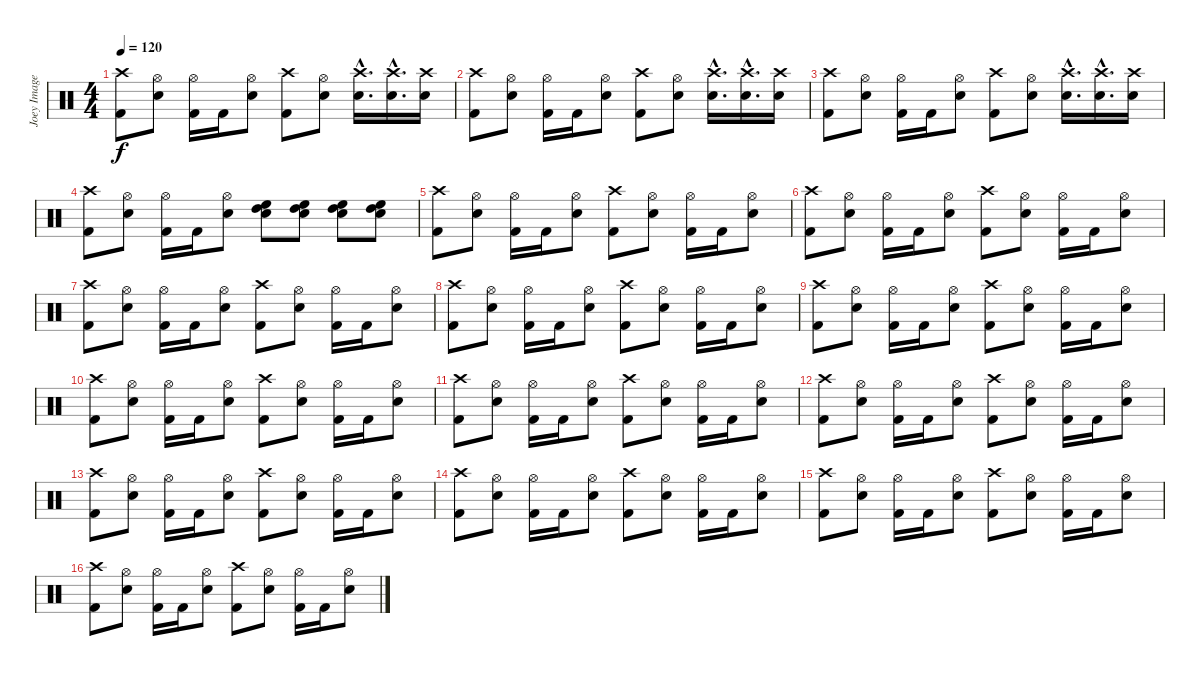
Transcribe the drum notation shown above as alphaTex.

\track ("Joey Image" "Joey Image") {instrument percussion}
\staff {score}
\articulation defaults
\ts (4 4)
\tempo 120
\clef neutral
\ks c
("Crash high (hit)" "Kick (hit) 2").8{dy f} ("Hi-Hat (open)" "Snare (hit) 2").8 ("Hi-Hat (open)" "Kick (hit) 2").16 "Kick (hit) 2".16 ("Hi-Hat (open)" "Snare (hit) 2").8 ("Crash high (hit)" "Kick (hit) 2").8 ("Hi-Hat (open)" "Snare (hit) 2").8 ("Crash high (hit)"{hac} "Snare (hit) 2"{hac}).16{d} ("Crash high (hit)"{hac} "Snare (hit) 2"{hac}).16{d} ("Crash high (hit)" "Snare (hit) 2").16 |
("Crash high (hit)" "Kick (hit) 2").8 ("Hi-Hat (open)" "Snare (hit) 2").8 ("Hi-Hat (open)" "Kick (hit) 2").16 "Kick (hit) 2".16 ("Hi-Hat (open)" "Snare (hit) 2").8 ("Crash high (hit)" "Kick (hit) 2").8 ("Hi-Hat (open)" "Snare (hit) 2").8 ("Crash high (hit)"{hac} "Snare (hit) 2"{hac}).16{d} ("Crash high (hit)"{hac} "Snare (hit) 2"{hac}).16{d} ("Crash high (hit)" "Snare (hit) 2").16 |
("Crash high (hit)" "Kick (hit) 2").8 ("Hi-Hat (open)" "Snare (hit) 2").8 ("Hi-Hat (open)" "Kick (hit) 2").16 "Kick (hit) 2".16 ("Hi-Hat (open)" "Snare (hit) 2").8 ("Crash high (hit)" "Kick (hit) 2").8 ("Hi-Hat (open)" "Snare (hit) 2").8 ("Crash high (hit)"{hac} "Snare (hit) 2"{hac}).16{d} ("Crash high (hit)"{hac} "Snare (hit) 2"{hac}).16{d} ("Crash high (hit)" "Snare (hit) 2").16 |
("Crash high (hit)" "Kick (hit) 2").8 ("Hi-Hat (open)" "Snare (hit) 2").8 ("Hi-Hat (open)" "Kick (hit) 2").16 "Kick (hit) 2".16 ("Hi-Hat (open)" "Snare (hit) 2").8 ("High Floor Tom (hit)" "Snare (hit) 2" "High Tom (hit)").8 ("High Floor Tom (hit)" "Snare (hit) 2" "High Tom (hit)").8 ("High Floor Tom (hit)" "Snare (hit) 2" "High Tom (hit)").8 ("High Floor Tom (hit)" "Snare (hit) 2" "High Tom (hit)").8 |
("Crash high (hit)" "Kick (hit) 2").8 ("Hi-Hat (open)" "Snare (hit) 2").8 ("Hi-Hat (open)" "Kick (hit) 2").16 "Kick (hit) 2".16 ("Hi-Hat (open)" "Snare (hit) 2").8 ("Crash high (hit)" "Kick (hit) 2").8 ("Hi-Hat (open)" "Snare (hit) 2").8 ("Hi-Hat (open)" "Kick (hit) 2").16 "Kick (hit) 2".16 ("Hi-Hat (open)" "Snare (hit) 2").8 |
("Crash high (hit)" "Kick (hit) 2").8 ("Hi-Hat (open)" "Snare (hit) 2").8 ("Hi-Hat (open)" "Kick (hit) 2").16 "Kick (hit) 2".16 ("Hi-Hat (open)" "Snare (hit) 2").8 ("Crash high (hit)" "Kick (hit) 2").8 ("Hi-Hat (open)" "Snare (hit) 2").8 ("Hi-Hat (open)" "Kick (hit) 2").16 "Kick (hit) 2".16 ("Hi-Hat (open)" "Snare (hit) 2").8 |
("Crash high (hit)" "Kick (hit) 2").8 ("Hi-Hat (open)" "Snare (hit) 2").8 ("Hi-Hat (open)" "Kick (hit) 2").16 "Kick (hit) 2".16 ("Hi-Hat (open)" "Snare (hit) 2").8 ("Crash high (hit)" "Kick (hit) 2").8 ("Hi-Hat (open)" "Snare (hit) 2").8 ("Hi-Hat (open)" "Kick (hit) 2").16 "Kick (hit) 2".16 ("Hi-Hat (open)" "Snare (hit) 2").8 |
("Crash high (hit)" "Kick (hit) 2").8 ("Hi-Hat (open)" "Snare (hit) 2").8 ("Hi-Hat (open)" "Kick (hit) 2").16 "Kick (hit) 2".16 ("Hi-Hat (open)" "Snare (hit) 2").8 ("Crash high (hit)" "Kick (hit) 2").8 ("Hi-Hat (open)" "Snare (hit) 2").8 ("Hi-Hat (open)" "Kick (hit) 2").16 "Kick (hit) 2".16 ("Hi-Hat (open)" "Snare (hit) 2").8 |
("Crash high (hit)" "Kick (hit) 2").8 ("Hi-Hat (open)" "Snare (hit) 2").8 ("Hi-Hat (open)" "Kick (hit) 2").16 "Kick (hit) 2".16 ("Hi-Hat (open)" "Snare (hit) 2").8 ("Crash high (hit)" "Kick (hit) 2").8 ("Hi-Hat (open)" "Snare (hit) 2").8 ("Hi-Hat (open)" "Kick (hit) 2").16 "Kick (hit) 2".16 ("Hi-Hat (open)" "Snare (hit) 2").8 |
("Crash high (hit)" "Kick (hit) 2").8 ("Hi-Hat (open)" "Snare (hit) 2").8 ("Hi-Hat (open)" "Kick (hit) 2").16 "Kick (hit) 2".16 ("Hi-Hat (open)" "Snare (hit) 2").8 ("Crash high (hit)" "Kick (hit) 2").8 ("Hi-Hat (open)" "Snare (hit) 2").8 ("Hi-Hat (open)" "Kick (hit) 2").16 "Kick (hit) 2".16 ("Hi-Hat (open)" "Snare (hit) 2").8 |
("Crash high (hit)" "Kick (hit) 2").8 ("Hi-Hat (open)" "Snare (hit) 2").8 ("Hi-Hat (open)" "Kick (hit) 2").16 "Kick (hit) 2".16 ("Hi-Hat (open)" "Snare (hit) 2").8 ("Crash high (hit)" "Kick (hit) 2").8 ("Hi-Hat (open)" "Snare (hit) 2").8 ("Hi-Hat (open)" "Kick (hit) 2").16 "Kick (hit) 2".16 ("Hi-Hat (open)" "Snare (hit) 2").8 |
("Crash high (hit)" "Kick (hit) 2").8 ("Hi-Hat (open)" "Snare (hit) 2").8 ("Hi-Hat (open)" "Kick (hit) 2").16 "Kick (hit) 2".16 ("Hi-Hat (open)" "Snare (hit) 2").8 ("Crash high (hit)" "Kick (hit) 2").8 ("Hi-Hat (open)" "Snare (hit) 2").8 ("Hi-Hat (open)" "Kick (hit) 2").16 "Kick (hit) 2".16 ("Hi-Hat (open)" "Snare (hit) 2").8 |
("Crash high (hit)" "Kick (hit) 2").8 ("Hi-Hat (open)" "Snare (hit) 2").8 ("Hi-Hat (open)" "Kick (hit) 2").16 "Kick (hit) 2".16 ("Hi-Hat (open)" "Snare (hit) 2").8 ("Crash high (hit)" "Kick (hit) 2").8 ("Hi-Hat (open)" "Snare (hit) 2").8 ("Hi-Hat (open)" "Kick (hit) 2").16 "Kick (hit) 2".16 ("Hi-Hat (open)" "Snare (hit) 2").8 |
("Crash high (hit)" "Kick (hit) 2").8 ("Hi-Hat (open)" "Snare (hit) 2").8 ("Hi-Hat (open)" "Kick (hit) 2").16 "Kick (hit) 2".16 ("Hi-Hat (open)" "Snare (hit) 2").8 ("Crash high (hit)" "Kick (hit) 2").8 ("Hi-Hat (open)" "Snare (hit) 2").8 ("Hi-Hat (open)" "Kick (hit) 2").16 "Kick (hit) 2".16 ("Hi-Hat (open)" "Snare (hit) 2").8 |
("Crash high (hit)" "Kick (hit) 2").8 ("Hi-Hat (open)" "Snare (hit) 2").8 ("Hi-Hat (open)" "Kick (hit) 2").16 "Kick (hit) 2".16 ("Hi-Hat (open)" "Snare (hit) 2").8 ("Crash high (hit)" "Kick (hit) 2").8 ("Hi-Hat (open)" "Snare (hit) 2").8 ("Hi-Hat (open)" "Kick (hit) 2").16 "Kick (hit) 2".16 ("Hi-Hat (open)" "Snare (hit) 2").8 |
("Crash high (hit)" "Kick (hit) 2").8 ("Hi-Hat (open)" "Snare (hit) 2").8 ("Hi-Hat (open)" "Kick (hit) 2").16 "Kick (hit) 2".16 ("Hi-Hat (open)" "Snare (hit) 2").8 ("Crash high (hit)" "Kick (hit) 2").8 ("Hi-Hat (open)" "Snare (hit) 2").8 ("Hi-Hat (open)" "Kick (hit) 2").16 "Kick (hit) 2".16 ("Hi-Hat (open)" "Snare (hit) 2").8
